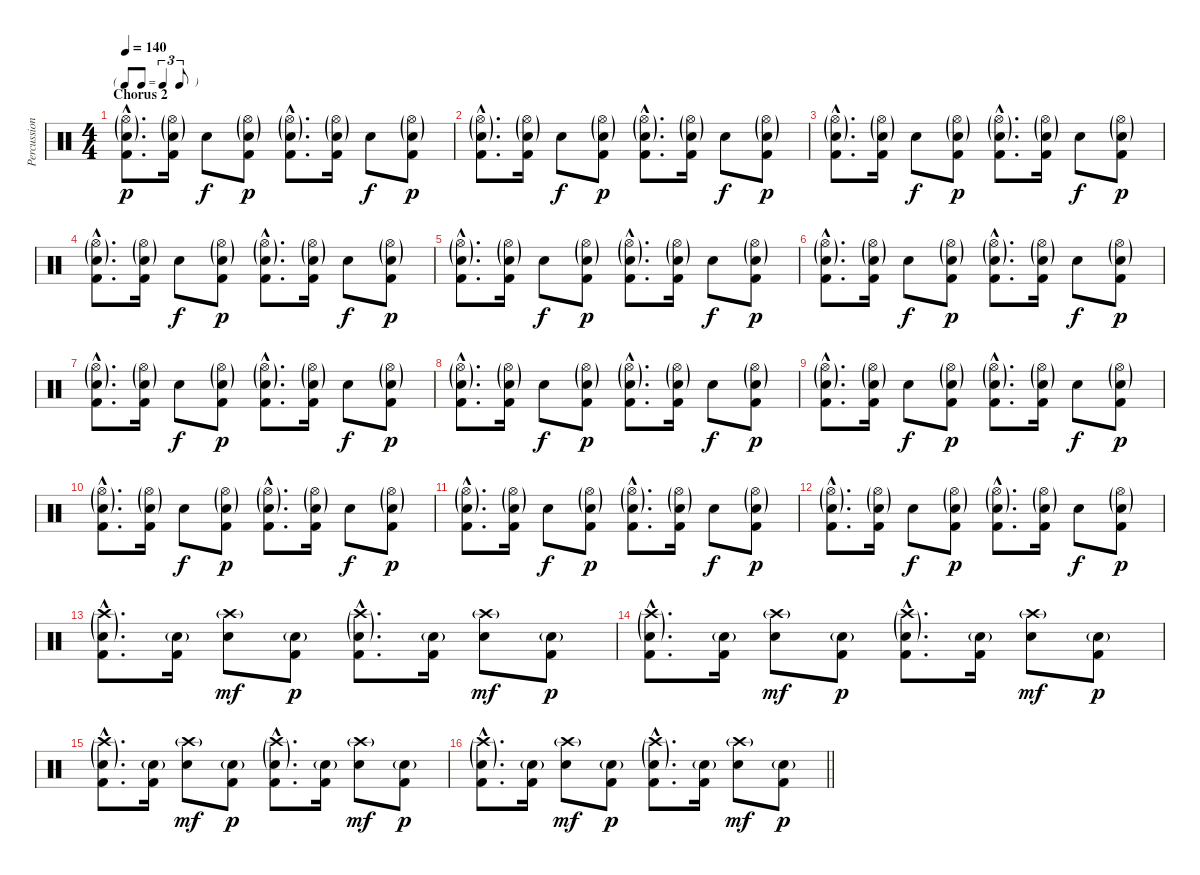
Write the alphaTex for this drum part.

\track ("Percussion" "Percussion") {instrument percussion}
\staff {score}
\articulation defaults
\ts (4 4)
\tf triplet8th
\section ("" "Chorus 2")
\tempo 140
\clef neutral
\ks c
("Hi-Hat (open)"{g hac} "Snare (hit) 2"{g hac} "Kick (hit) 2"{hac}).8{d dy p} ("Hi-Hat (open)"{g} "Snare (hit) 2"{g} "Kick (hit) 2").16 "Snare (hit) 2".8{dy f} ("Hi-Hat (open)"{g} "Snare (hit) 2"{g} "Kick (hit) 2").8{dy p} ("Hi-Hat (open)"{g hac} "Snare (hit) 2"{g hac} "Kick (hit) 2"{hac}).8{d} ("Hi-Hat (open)"{g} "Snare (hit) 2"{g} "Kick (hit) 2").16 "Snare (hit) 2".8{dy f} ("Hi-Hat (open)"{g} "Snare (hit) 2"{g} "Kick (hit) 2").8{dy p} |
("Hi-Hat (open)"{g hac} "Snare (hit) 2"{g hac} "Kick (hit) 2"{hac}).8{d} ("Hi-Hat (open)"{g} "Snare (hit) 2"{g} "Kick (hit) 2").16 "Snare (hit) 2".8{dy f} ("Hi-Hat (open)"{g} "Snare (hit) 2"{g} "Kick (hit) 2").8{dy p} ("Hi-Hat (open)"{g hac} "Snare (hit) 2"{g hac} "Kick (hit) 2"{hac}).8{d} ("Hi-Hat (open)"{g} "Snare (hit) 2"{g} "Kick (hit) 2").16 "Snare (hit) 2".8{dy f} ("Hi-Hat (open)"{g} "Snare (hit) 2"{g} "Kick (hit) 2").8{dy p} |
("Hi-Hat (open)"{g hac} "Snare (hit) 2"{g hac} "Kick (hit) 2"{hac}).8{d} ("Hi-Hat (open)"{g} "Snare (hit) 2"{g} "Kick (hit) 2").16 "Snare (hit) 2".8{dy f} ("Hi-Hat (open)"{g} "Snare (hit) 2"{g} "Kick (hit) 2").8{dy p} ("Hi-Hat (open)"{g hac} "Snare (hit) 2"{g hac} "Kick (hit) 2"{hac}).8{d} ("Hi-Hat (open)"{g} "Snare (hit) 2"{g} "Kick (hit) 2").16 "Snare (hit) 2".8{dy f} ("Hi-Hat (open)"{g} "Snare (hit) 2"{g} "Kick (hit) 2").8{dy p} |
("Hi-Hat (open)"{g hac} "Snare (hit) 2"{g hac} "Kick (hit) 2"{hac}).8{d} ("Hi-Hat (open)"{g} "Snare (hit) 2"{g} "Kick (hit) 2").16 "Snare (hit) 2".8{dy f} ("Hi-Hat (open)"{g} "Snare (hit) 2"{g} "Kick (hit) 2").8{dy p} ("Hi-Hat (open)"{g hac} "Snare (hit) 2"{g hac} "Kick (hit) 2"{hac}).8{d} ("Hi-Hat (open)"{g} "Snare (hit) 2"{g} "Kick (hit) 2").16 "Snare (hit) 2".8{dy f} ("Hi-Hat (open)"{g} "Snare (hit) 2"{g} "Kick (hit) 2").8{dy p} |
("Hi-Hat (open)"{g hac} "Snare (hit) 2"{g hac} "Kick (hit) 2"{hac}).8{d} ("Hi-Hat (open)"{g} "Snare (hit) 2"{g} "Kick (hit) 2").16 "Snare (hit) 2".8{dy f} ("Hi-Hat (open)"{g} "Snare (hit) 2"{g} "Kick (hit) 2").8{dy p} ("Hi-Hat (open)"{g hac} "Snare (hit) 2"{g hac} "Kick (hit) 2"{hac}).8{d} ("Hi-Hat (open)"{g} "Snare (hit) 2"{g} "Kick (hit) 2").16 "Snare (hit) 2".8{dy f} ("Hi-Hat (open)"{g} "Snare (hit) 2"{g} "Kick (hit) 2").8{dy p} |
("Hi-Hat (open)"{g hac} "Snare (hit) 2"{g hac} "Kick (hit) 2"{hac}).8{d} ("Hi-Hat (open)"{g} "Snare (hit) 2"{g} "Kick (hit) 2").16 "Snare (hit) 2".8{dy f} ("Hi-Hat (open)"{g} "Snare (hit) 2"{g} "Kick (hit) 2").8{dy p} ("Hi-Hat (open)"{g hac} "Snare (hit) 2"{g hac} "Kick (hit) 2"{hac}).8{d} ("Hi-Hat (open)"{g} "Snare (hit) 2"{g} "Kick (hit) 2").16 "Snare (hit) 2".8{dy f} ("Hi-Hat (open)"{g} "Snare (hit) 2"{g} "Kick (hit) 2").8{dy p} |
("Hi-Hat (open)"{g hac} "Snare (hit) 2"{g hac} "Kick (hit) 2"{hac}).8{d} ("Hi-Hat (open)"{g} "Snare (hit) 2"{g} "Kick (hit) 2").16 "Snare (hit) 2".8{dy f} ("Hi-Hat (open)"{g} "Snare (hit) 2"{g} "Kick (hit) 2").8{dy p} ("Hi-Hat (open)"{g hac} "Snare (hit) 2"{g hac} "Kick (hit) 2"{hac}).8{d} ("Hi-Hat (open)"{g} "Snare (hit) 2"{g} "Kick (hit) 2").16 "Snare (hit) 2".8{dy f} ("Hi-Hat (open)"{g} "Snare (hit) 2"{g} "Kick (hit) 2").8{dy p} |
("Hi-Hat (open)"{g hac} "Snare (hit) 2"{g hac} "Kick (hit) 2"{hac}).8{d} ("Hi-Hat (open)"{g} "Snare (hit) 2"{g} "Kick (hit) 2").16 "Snare (hit) 2".8{dy f} ("Hi-Hat (open)"{g} "Snare (hit) 2"{g} "Kick (hit) 2").8{dy p} ("Hi-Hat (open)"{g hac} "Snare (hit) 2"{g hac} "Kick (hit) 2"{hac}).8{d} ("Hi-Hat (open)"{g} "Snare (hit) 2"{g} "Kick (hit) 2").16 "Snare (hit) 2".8{dy f} ("Hi-Hat (open)"{g} "Snare (hit) 2"{g} "Kick (hit) 2").8{dy p} |
("Hi-Hat (open)"{g hac} "Snare (hit) 2"{g hac} "Kick (hit) 2"{hac}).8{d} ("Hi-Hat (open)"{g} "Snare (hit) 2"{g} "Kick (hit) 2").16 "Snare (hit) 2".8{dy f} ("Hi-Hat (open)"{g} "Snare (hit) 2"{g} "Kick (hit) 2").8{dy p} ("Hi-Hat (open)"{g hac} "Snare (hit) 2"{g hac} "Kick (hit) 2"{hac}).8{d} ("Hi-Hat (open)"{g} "Snare (hit) 2"{g} "Kick (hit) 2").16 "Snare (hit) 2".8{dy f} ("Hi-Hat (open)"{g} "Snare (hit) 2"{g} "Kick (hit) 2").8{dy p} |
("Hi-Hat (open)"{g hac} "Snare (hit) 2"{g hac} "Kick (hit) 2"{hac}).8{d} ("Hi-Hat (open)"{g} "Snare (hit) 2"{g} "Kick (hit) 2").16 "Snare (hit) 2".8{dy f} ("Hi-Hat (open)"{g} "Snare (hit) 2"{g} "Kick (hit) 2").8{dy p} ("Hi-Hat (open)"{g hac} "Snare (hit) 2"{g hac} "Kick (hit) 2"{hac}).8{d} ("Hi-Hat (open)"{g} "Snare (hit) 2"{g} "Kick (hit) 2").16 "Snare (hit) 2".8{dy f} ("Hi-Hat (open)"{g} "Snare (hit) 2"{g} "Kick (hit) 2").8{dy p} |
("Hi-Hat (open)"{g hac} "Snare (hit) 2"{g hac} "Kick (hit) 2"{hac}).8{d} ("Hi-Hat (open)"{g} "Snare (hit) 2"{g} "Kick (hit) 2").16 "Snare (hit) 2".8{dy f} ("Hi-Hat (open)"{g} "Snare (hit) 2"{g} "Kick (hit) 2").8{dy p} ("Hi-Hat (open)"{g hac} "Snare (hit) 2"{g hac} "Kick (hit) 2"{hac}).8{d} ("Hi-Hat (open)"{g} "Snare (hit) 2"{g} "Kick (hit) 2").16 "Snare (hit) 2".8{dy f} ("Hi-Hat (open)"{g} "Snare (hit) 2"{g} "Kick (hit) 2").8{dy p} |
("Hi-Hat (open)"{g hac} "Snare (hit) 2"{g hac} "Kick (hit) 2"{hac}).8{d} ("Hi-Hat (open)"{g} "Snare (hit) 2"{g} "Kick (hit) 2").16 "Snare (hit) 2".8{dy f} ("Hi-Hat (open)"{g} "Snare (hit) 2"{g} "Kick (hit) 2").8{dy p} ("Hi-Hat (open)"{g hac} "Snare (hit) 2"{g hac} "Kick (hit) 2"{hac}).8{d} ("Hi-Hat (open)"{g} "Snare (hit) 2"{g} "Kick (hit) 2").16 "Snare (hit) 2".8{dy f} ("Hi-Hat (open)"{g} "Snare (hit) 2"{g} "Kick (hit) 2").8{dy p} |
("Crash high (hit)"{g hac} "Snare (hit) 2"{g hac} "Kick (hit) 2"{hac}).8{d} ("Snare (hit) 2"{g} "Kick (hit) 2").16 ("Crash high (hit)"{g} "Snare (hit) 2").8{dy mf} ("Snare (hit) 2"{g} "Kick (hit) 2").8{dy p} ("Crash high (hit)"{g hac} "Snare (hit) 2"{g hac} "Kick (hit) 2"{hac}).8{d} ("Snare (hit) 2"{g} "Kick (hit) 2").16 ("Crash high (hit)"{g} "Snare (hit) 2").8{dy mf} ("Snare (hit) 2"{g} "Kick (hit) 2").8{dy p} |
("Crash high (hit)"{g hac} "Snare (hit) 2"{g hac} "Kick (hit) 2"{hac}).8{d} ("Snare (hit) 2"{g} "Kick (hit) 2").16 ("Crash high (hit)"{g} "Snare (hit) 2").8{dy mf} ("Snare (hit) 2"{g} "Kick (hit) 2").8{dy p} ("Crash high (hit)"{g hac} "Snare (hit) 2"{g hac} "Kick (hit) 2"{hac}).8{d} ("Snare (hit) 2"{g} "Kick (hit) 2").16 ("Crash high (hit)"{g} "Snare (hit) 2").8{dy mf} ("Snare (hit) 2"{g} "Kick (hit) 2").8{dy p} |
("Crash high (hit)"{g hac} "Snare (hit) 2"{g hac} "Kick (hit) 2"{hac}).8{d} ("Snare (hit) 2"{g} "Kick (hit) 2").16 ("Crash high (hit)"{g} "Snare (hit) 2").8{dy mf} ("Snare (hit) 2"{g} "Kick (hit) 2").8{dy p} ("Crash high (hit)"{g hac} "Snare (hit) 2"{g hac} "Kick (hit) 2"{hac}).8{d} ("Snare (hit) 2"{g} "Kick (hit) 2").16 ("Crash high (hit)"{g} "Snare (hit) 2").8{dy mf} ("Snare (hit) 2"{g} "Kick (hit) 2").8{dy p} |
\barLineRight lightlight
("Crash high (hit)"{g hac} "Snare (hit) 2"{g hac} "Kick (hit) 2"{hac}).8{d} ("Snare (hit) 2"{g} "Kick (hit) 2").16 ("Crash high (hit)"{g} "Snare (hit) 2").8{dy mf} ("Snare (hit) 2"{g} "Kick (hit) 2").8{dy p} ("Crash high (hit)"{g hac} "Snare (hit) 2"{g hac} "Kick (hit) 2"{hac}).8{d} ("Snare (hit) 2"{g} "Kick (hit) 2").16 ("Crash high (hit)"{g} "Snare (hit) 2").8{dy mf} ("Snare (hit) 2"{g} "Kick (hit) 2").8{dy p}
